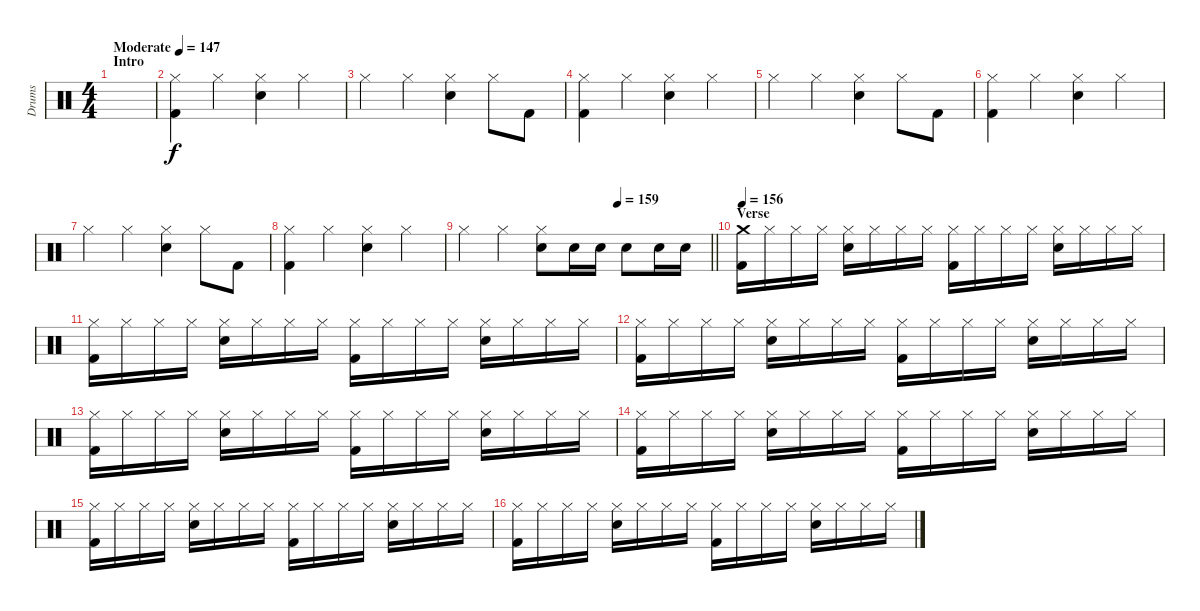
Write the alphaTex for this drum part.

\track ("Drums" "Drums") {instrument percussion}
\staff {score}
\articulation defaults
\ts (4 4)
\section ("" "Intro")
\tempo (147 "Moderate")
\clef neutral
\ks c
|
("Hi-Hat (closed)" "Kick (hit) 2").4{volume 8 balance 2} "Hi-Hat (closed)".4 ("Hi-Hat (closed)" "Electric Snare (hit)").4 "Hi-Hat (closed)".4 |
"Hi-Hat (closed)".4 "Hi-Hat (closed)".4 ("Hi-Hat (closed)" "Electric Snare (hit)").4 "Hi-Hat (closed)".8 "Kick (hit) 2".8 |
("Hi-Hat (closed)" "Kick (hit) 2").4 "Hi-Hat (closed)".4 ("Hi-Hat (closed)" "Electric Snare (hit)").4 "Hi-Hat (closed)".4 |
"Hi-Hat (closed)".4 "Hi-Hat (closed)".4 ("Hi-Hat (closed)" "Electric Snare (hit)").4 "Hi-Hat (closed)".8 "Kick (hit) 2".8 |
("Hi-Hat (closed)" "Kick (hit) 2").4 "Hi-Hat (closed)".4 ("Hi-Hat (closed)" "Electric Snare (hit)").4 "Hi-Hat (closed)".4 |
"Hi-Hat (closed)".4 "Hi-Hat (closed)".4 ("Hi-Hat (closed)" "Electric Snare (hit)").4 "Hi-Hat (closed)".8 "Kick (hit) 2".8 |
("Hi-Hat (closed)" "Kick (hit) 2").4 "Hi-Hat (closed)".4 ("Hi-Hat (closed)" "Electric Snare (hit)").4 "Hi-Hat (closed)".4 |
\tempo (159 0.625)
\barLineRight lightlight "Hi-Hat (closed)".4 "Hi-Hat (closed)".4
("Hi-Hat (closed)" "Electric Snare (hit)").8 "Electric Snare (hit)".16{volume 12 balance 8} "Electric Snare (hit)".16 "Electric Snare (hit)".8 "Electric Snare (hit)".16 "Electric Snare (hit)".16 |
\section ("" "Verse")
\tempo 156
("Crash medium (hit)" "Kick (hit) 2").16 "Hi-Hat (closed)".16 "Hi-Hat (closed)".16 "Hi-Hat (closed)".16 ("Hi-Hat (closed)" "Electric Snare (hit)").16 "Hi-Hat (closed)".16 "Hi-Hat (closed)".16 "Hi-Hat (closed)".16 ("Hi-Hat (closed)" "Kick (hit) 2").16 "Hi-Hat (closed)".16 "Hi-Hat (closed)".16 "Hi-Hat (closed)".16 ("Hi-Hat (closed)" "Electric Snare (hit)").16 "Hi-Hat (closed)".16 "Hi-Hat (closed)".16 "Hi-Hat (closed)".16 |
("Hi-Hat (closed)" "Kick (hit) 2").16 "Hi-Hat (closed)".16 "Hi-Hat (closed)".16 "Hi-Hat (closed)".16 ("Hi-Hat (closed)" "Electric Snare (hit)").16 "Hi-Hat (closed)".16 "Hi-Hat (closed)".16 "Hi-Hat (closed)".16 ("Hi-Hat (closed)" "Kick (hit) 2").16 "Hi-Hat (closed)".16 "Hi-Hat (closed)".16 "Hi-Hat (closed)".16 ("Hi-Hat (closed)" "Electric Snare (hit)").16 "Hi-Hat (closed)".16 "Hi-Hat (closed)".16 "Hi-Hat (closed)".16 |
("Hi-Hat (closed)" "Kick (hit) 2").16 "Hi-Hat (closed)".16 "Hi-Hat (closed)".16 "Hi-Hat (closed)".16 ("Hi-Hat (closed)" "Electric Snare (hit)").16 "Hi-Hat (closed)".16 "Hi-Hat (closed)".16 "Hi-Hat (closed)".16 ("Hi-Hat (closed)" "Kick (hit) 2").16 "Hi-Hat (closed)".16 "Hi-Hat (closed)".16 "Hi-Hat (closed)".16 ("Hi-Hat (closed)" "Electric Snare (hit)").16 "Hi-Hat (closed)".16 "Hi-Hat (closed)".16 "Hi-Hat (closed)".16 |
("Hi-Hat (closed)" "Kick (hit) 2").16 "Hi-Hat (closed)".16 "Hi-Hat (closed)".16 "Hi-Hat (closed)".16 ("Hi-Hat (closed)" "Electric Snare (hit)").16 "Hi-Hat (closed)".16 "Hi-Hat (closed)".16 "Hi-Hat (closed)".16 ("Hi-Hat (closed)" "Kick (hit) 2").16 "Hi-Hat (closed)".16 "Hi-Hat (closed)".16 "Hi-Hat (closed)".16 ("Hi-Hat (closed)" "Electric Snare (hit)").16 "Hi-Hat (closed)".16 "Hi-Hat (closed)".16 "Hi-Hat (closed)".16 |
("Hi-Hat (closed)" "Kick (hit) 2").16 "Hi-Hat (closed)".16 "Hi-Hat (closed)".16 "Hi-Hat (closed)".16 ("Hi-Hat (closed)" "Electric Snare (hit)").16 "Hi-Hat (closed)".16 "Hi-Hat (closed)".16 "Hi-Hat (closed)".16 ("Hi-Hat (closed)" "Kick (hit) 2").16 "Hi-Hat (closed)".16 "Hi-Hat (closed)".16 "Hi-Hat (closed)".16 ("Hi-Hat (closed)" "Electric Snare (hit)").16 "Hi-Hat (closed)".16 "Hi-Hat (closed)".16 "Hi-Hat (closed)".16 |
("Hi-Hat (closed)" "Kick (hit) 2").16 "Hi-Hat (closed)".16 "Hi-Hat (closed)".16 "Hi-Hat (closed)".16 ("Hi-Hat (closed)" "Electric Snare (hit)").16 "Hi-Hat (closed)".16 "Hi-Hat (closed)".16 "Hi-Hat (closed)".16 ("Hi-Hat (closed)" "Kick (hit) 2").16 "Hi-Hat (closed)".16 "Hi-Hat (closed)".16 "Hi-Hat (closed)".16 ("Hi-Hat (closed)" "Electric Snare (hit)").16 "Hi-Hat (closed)".16 "Hi-Hat (closed)".16 "Hi-Hat (closed)".16 |
("Hi-Hat (closed)" "Kick (hit) 2").16 "Hi-Hat (closed)".16 "Hi-Hat (closed)".16 "Hi-Hat (closed)".16 ("Hi-Hat (closed)" "Electric Snare (hit)").16 "Hi-Hat (closed)".16 "Hi-Hat (closed)".16 "Hi-Hat (closed)".16 ("Hi-Hat (closed)" "Kick (hit) 2").16 "Hi-Hat (closed)".16 "Hi-Hat (closed)".16 "Hi-Hat (closed)".16 ("Hi-Hat (closed)" "Electric Snare (hit)").16 "Hi-Hat (closed)".16 "Hi-Hat (closed)".16 "Hi-Hat (closed)".16
